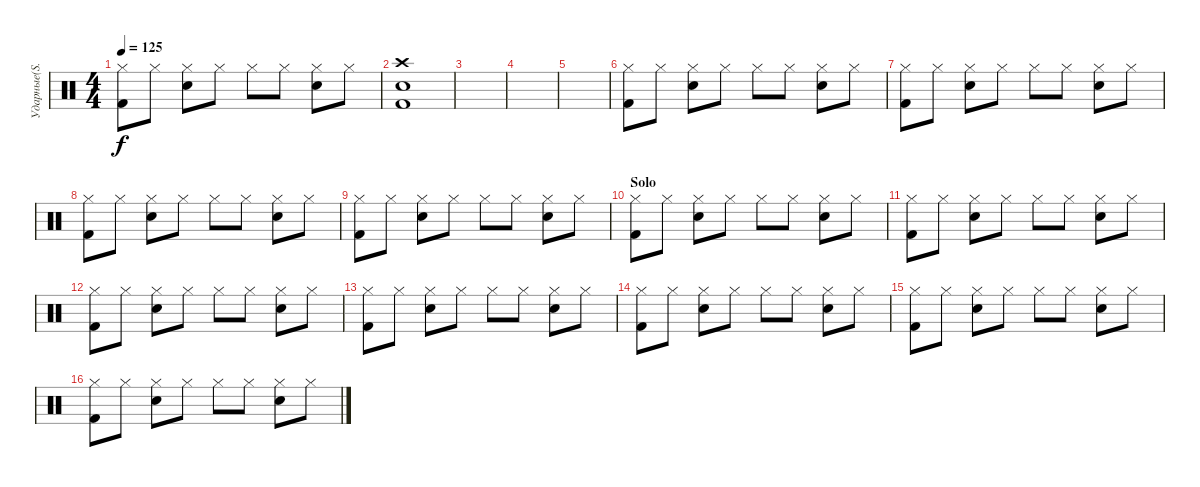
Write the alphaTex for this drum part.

\track ("Ударные(S. Travis)" "Ударные(S.") {instrument percussion}
\staff {score}
\articulation defaults
\ts (4 4)
\tempo 125
\clef neutral
\ks c
("Hi-Hat (closed)" "Kick (hit) 2").8{dy f} "Hi-Hat (closed)".8 ("Hi-Hat (closed)" "Snare (hit) 2").8 "Hi-Hat (closed)".8 "Hi-Hat (closed)".8 "Hi-Hat (closed)".8 ("Hi-Hat (closed)" "Snare (hit) 2").8 "Hi-Hat (closed)".8 |
("Crash high (hit)" "Snare (hit) 2" "Kick (hit) 2").1 |
|
|
|
("Hi-Hat (closed)" "Kick (hit) 2").8 "Hi-Hat (closed)".8 ("Hi-Hat (closed)" "Snare (hit) 2").8 "Hi-Hat (closed)".8 "Hi-Hat (closed)".8 "Hi-Hat (closed)".8 ("Hi-Hat (closed)" "Snare (hit) 2").8 "Hi-Hat (closed)".8 |
("Hi-Hat (closed)" "Kick (hit) 2").8 "Hi-Hat (closed)".8 ("Hi-Hat (closed)" "Snare (hit) 2").8 "Hi-Hat (closed)".8 "Hi-Hat (closed)".8 "Hi-Hat (closed)".8 ("Hi-Hat (closed)" "Snare (hit) 2").8 "Hi-Hat (closed)".8 |
("Hi-Hat (closed)" "Kick (hit) 2").8 "Hi-Hat (closed)".8 ("Hi-Hat (closed)" "Snare (hit) 2").8 "Hi-Hat (closed)".8 "Hi-Hat (closed)".8 "Hi-Hat (closed)".8 ("Hi-Hat (closed)" "Snare (hit) 2").8 "Hi-Hat (closed)".8 |
("Hi-Hat (closed)" "Kick (hit) 2").8 "Hi-Hat (closed)".8 ("Hi-Hat (closed)" "Snare (hit) 2").8 "Hi-Hat (closed)".8 "Hi-Hat (closed)".8 "Hi-Hat (closed)".8 ("Hi-Hat (closed)" "Snare (hit) 2").8 "Hi-Hat (closed)".8 |
\section ("" "Solo")
("Hi-Hat (closed)" "Kick (hit) 2").8 "Hi-Hat (closed)".8 ("Hi-Hat (closed)" "Snare (hit) 2").8 "Hi-Hat (closed)".8 "Hi-Hat (closed)".8 "Hi-Hat (closed)".8 ("Hi-Hat (closed)" "Snare (hit) 2").8 "Hi-Hat (closed)".8 |
("Hi-Hat (closed)" "Kick (hit) 2").8 "Hi-Hat (closed)".8 ("Hi-Hat (closed)" "Snare (hit) 2").8 "Hi-Hat (closed)".8 "Hi-Hat (closed)".8 "Hi-Hat (closed)".8 ("Hi-Hat (closed)" "Snare (hit) 2").8 "Hi-Hat (closed)".8 |
("Hi-Hat (closed)" "Kick (hit) 2").8 "Hi-Hat (closed)".8 ("Hi-Hat (closed)" "Snare (hit) 2").8 "Hi-Hat (closed)".8 "Hi-Hat (closed)".8 "Hi-Hat (closed)".8 ("Hi-Hat (closed)" "Snare (hit) 2").8 "Hi-Hat (closed)".8 |
("Hi-Hat (closed)" "Kick (hit) 2").8 "Hi-Hat (closed)".8 ("Hi-Hat (closed)" "Snare (hit) 2").8 "Hi-Hat (closed)".8 "Hi-Hat (closed)".8 "Hi-Hat (closed)".8 ("Hi-Hat (closed)" "Snare (hit) 2").8 "Hi-Hat (closed)".8 |
("Hi-Hat (closed)" "Kick (hit) 2").8 "Hi-Hat (closed)".8 ("Hi-Hat (closed)" "Snare (hit) 2").8 "Hi-Hat (closed)".8 "Hi-Hat (closed)".8 "Hi-Hat (closed)".8 ("Hi-Hat (closed)" "Snare (hit) 2").8 "Hi-Hat (closed)".8 |
("Hi-Hat (closed)" "Kick (hit) 2").8 "Hi-Hat (closed)".8 ("Hi-Hat (closed)" "Snare (hit) 2").8 "Hi-Hat (closed)".8 "Hi-Hat (closed)".8 "Hi-Hat (closed)".8 ("Hi-Hat (closed)" "Snare (hit) 2").8 "Hi-Hat (closed)".8 |
("Hi-Hat (closed)" "Kick (hit) 2").8 "Hi-Hat (closed)".8 ("Hi-Hat (closed)" "Snare (hit) 2").8 "Hi-Hat (closed)".8 "Hi-Hat (closed)".8 "Hi-Hat (closed)".8 ("Hi-Hat (closed)" "Snare (hit) 2").8 "Hi-Hat (closed)".8
